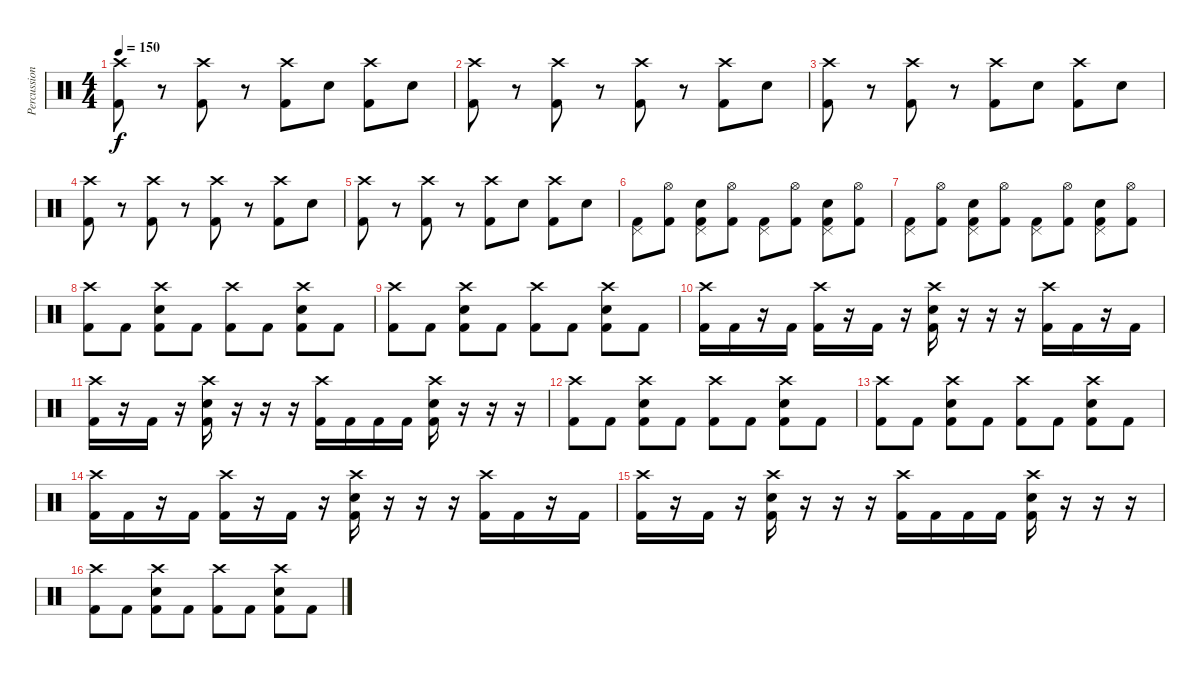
\track ("Percussion" "Percussion") {instrument percussion}
\staff {score}
\articulation defaults
\ts (4 4)
\tempo 150
\clef neutral
\ks c
("Crash high (hit)" "Kick (hit) 2").8{dy f} r.8 ("Crash high (hit)" "Kick (hit) 2").8 r.8 ("Crash high (hit)" "Kick (hit) 2").8 "Snare (hit) 2".8 ("Crash high (hit)" "Kick (hit) 2").8 "Snare (hit) 2".8 |
("Crash high (hit)" "Kick (hit) 2").8 r.8 ("Crash high (hit)" "Kick (hit) 2").8 r.8 ("Crash high (hit)" "Kick (hit) 2").8 r.8 ("Crash high (hit)" "Kick (hit) 2").8 "Snare (hit) 2".8 |
("Crash high (hit)" "Kick (hit) 2").8 r.8 ("Crash high (hit)" "Kick (hit) 2").8 r.8 ("Crash high (hit)" "Kick (hit) 2").8 "Snare (hit) 2".8 ("Crash high (hit)" "Kick (hit) 2").8 "Snare (hit) 2".8 |
("Crash high (hit)" "Kick (hit) 2").8 r.8 ("Crash high (hit)" "Kick (hit) 2").8 r.8 ("Crash high (hit)" "Kick (hit) 2").8 r.8 ("Crash high (hit)" "Kick (hit) 2").8 "Snare (hit) 2".8 |
("Crash high (hit)" "Kick (hit) 2").8 r.8 ("Crash high (hit)" "Kick (hit) 2").8 r.8 ("Crash high (hit)" "Kick (hit) 2").8 "Snare (hit) 2".8 ("Crash high (hit)" "Kick (hit) 2").8 "Snare (hit) 2".8 |
("Pedal Hi-Hat (hit)" "Kick (hit) 2").8 ("Hi-Hat (open)" "Kick (hit) 2").8 ("Pedal Hi-Hat (hit)" "Snare (hit) 2" "Kick (hit) 2").8 ("Hi-Hat (open)" "Kick (hit) 2").8 ("Pedal Hi-Hat (hit)" "Kick (hit) 2").8 ("Hi-Hat (open)" "Kick (hit) 2").8 ("Pedal Hi-Hat (hit)" "Snare (hit) 2" "Kick (hit) 2").8 ("Hi-Hat (open)" "Kick (hit) 2").8 |
("Pedal Hi-Hat (hit)" "Kick (hit) 2").8 ("Hi-Hat (open)" "Kick (hit) 2").8 ("Pedal Hi-Hat (hit)" "Snare (hit) 2" "Kick (hit) 2").8 ("Hi-Hat (open)" "Kick (hit) 2").8 ("Pedal Hi-Hat (hit)" "Kick (hit) 2").8 ("Hi-Hat (open)" "Kick (hit) 2").8 ("Pedal Hi-Hat (hit)" "Snare (hit) 2" "Kick (hit) 2").8 ("Hi-Hat (open)" "Kick (hit) 2").8 |
("Crash high (hit)" "Kick (hit) 2").8 "Kick (hit) 2".8 ("Crash high (hit)" "Snare (hit) 2" "Kick (hit) 2").8 "Kick (hit) 2".8 ("Crash high (hit)" "Kick (hit) 2").8 "Kick (hit) 2".8 ("Crash high (hit)" "Snare (hit) 2" "Kick (hit) 2").8 "Kick (hit) 2".8 |
("Crash high (hit)" "Kick (hit) 2").8 "Kick (hit) 2".8 ("Crash high (hit)" "Snare (hit) 2" "Kick (hit) 2").8 "Kick (hit) 2".8 ("Crash high (hit)" "Kick (hit) 2").8 "Kick (hit) 2".8 ("Crash high (hit)" "Snare (hit) 2" "Kick (hit) 2").8 "Kick (hit) 2".8 |
("Crash high (hit)" "Kick (hit) 2").16 "Kick (hit) 2".16 r.16 "Kick (hit) 2".16 ("Crash high (hit)" "Kick (hit) 2").16 r.16 "Kick (hit) 2".16 r.16 ("Crash high (hit)" "Snare (hit) 2" "Kick (hit) 2").16 r.16 r.16 r.16 ("Crash high (hit)" "Kick (hit) 2").16 "Kick (hit) 2".16 r.16 "Kick (hit) 2".16 |
("Crash high (hit)" "Kick (hit) 2").16 r.16 "Kick (hit) 2".16 r.16 ("Crash high (hit)" "Snare (hit) 2" "Kick (hit) 2").16 r.16 r.16 r.16 ("Crash high (hit)" "Kick (hit) 2").16 "Kick (hit) 2".16 "Kick (hit) 2".16 "Kick (hit) 2".16 ("Crash high (hit)" "Snare (hit) 2" "Kick (hit) 2").16 r.16 r.16 r.16 |
("Crash high (hit)" "Kick (hit) 2").8 "Kick (hit) 2".8 ("Crash high (hit)" "Snare (hit) 2" "Kick (hit) 2").8 "Kick (hit) 2".8 ("Crash high (hit)" "Kick (hit) 2").8 "Kick (hit) 2".8 ("Crash high (hit)" "Snare (hit) 2" "Kick (hit) 2").8 "Kick (hit) 2".8 |
("Crash high (hit)" "Kick (hit) 2").8 "Kick (hit) 2".8 ("Crash high (hit)" "Snare (hit) 2" "Kick (hit) 2").8 "Kick (hit) 2".8 ("Crash high (hit)" "Kick (hit) 2").8 "Kick (hit) 2".8 ("Crash high (hit)" "Snare (hit) 2" "Kick (hit) 2").8 "Kick (hit) 2".8 |
("Crash high (hit)" "Kick (hit) 2").16 "Kick (hit) 2".16 r.16 "Kick (hit) 2".16 ("Crash high (hit)" "Kick (hit) 2").16 r.16 "Kick (hit) 2".16 r.16 ("Crash high (hit)" "Snare (hit) 2" "Kick (hit) 2").16 r.16 r.16 r.16 ("Crash high (hit)" "Kick (hit) 2").16 "Kick (hit) 2".16 r.16 "Kick (hit) 2".16 |
("Crash high (hit)" "Kick (hit) 2").16 r.16 "Kick (hit) 2".16 r.16 ("Crash high (hit)" "Snare (hit) 2" "Kick (hit) 2").16 r.16 r.16 r.16 ("Crash high (hit)" "Kick (hit) 2").16 "Kick (hit) 2".16 "Kick (hit) 2".16 "Kick (hit) 2".16 ("Crash high (hit)" "Snare (hit) 2" "Kick (hit) 2").16 r.16 r.16 r.16 |
("Crash high (hit)" "Kick (hit) 2").8 "Kick (hit) 2".8 ("Crash high (hit)" "Snare (hit) 2" "Kick (hit) 2").8 "Kick (hit) 2".8 ("Crash high (hit)" "Kick (hit) 2").8 "Kick (hit) 2".8 ("Crash high (hit)" "Snare (hit) 2" "Kick (hit) 2").8 "Kick (hit) 2".8
